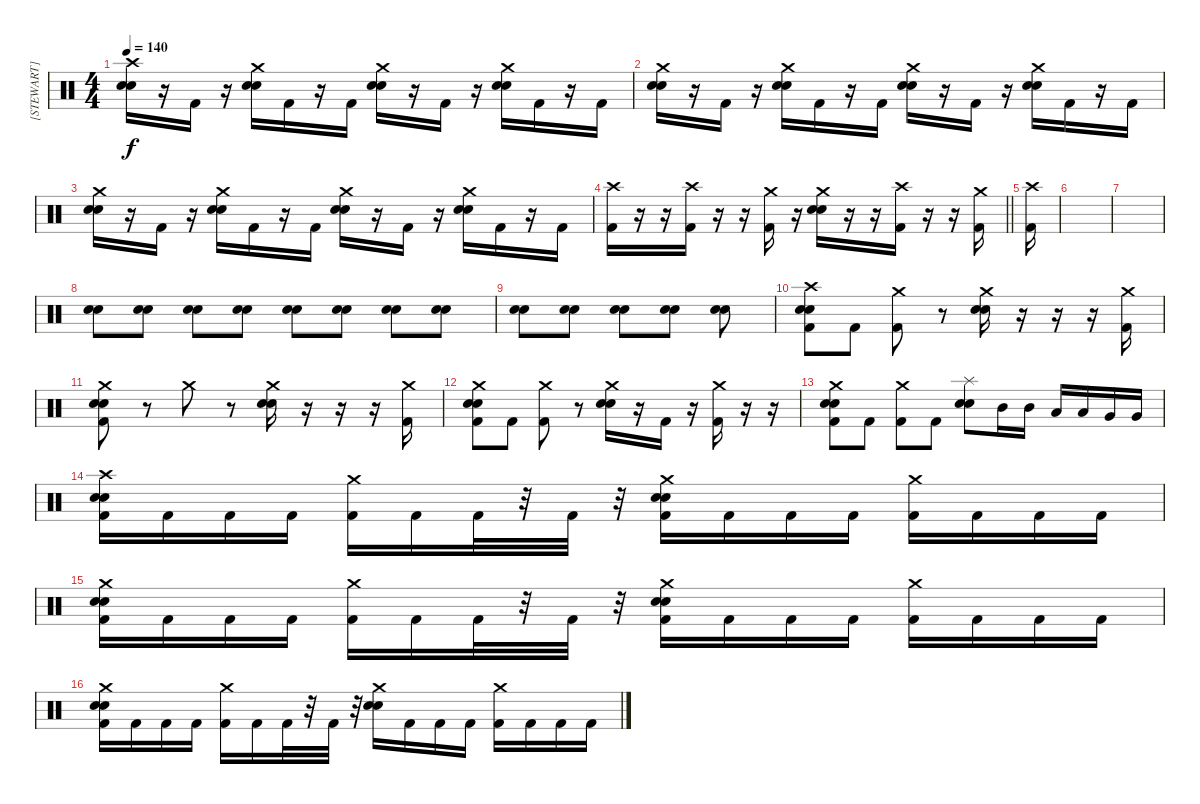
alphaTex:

\track ("[STEWART]" "[STEWART]") {instrument percussion}
\staff {score}
\articulation defaults
\ts (4 4)
\tempo 140
\clef neutral
\ks c
("Crash high (hit)" "Electric Snare (hit)" "Snare (hit) 2").16{dy f} r.16 "Kick (hit) 2".16 r.16 ("Crash medium (hit)" "Electric Snare (hit)" "Snare (hit) 2").16 "Kick (hit) 2".16 r.16 "Kick (hit) 2".16 ("Crash medium (hit)" "Electric Snare (hit)" "Snare (hit) 2").16 r.16 "Kick (hit) 2".16 r.16 ("Crash medium (hit)" "Electric Snare (hit)" "Snare (hit) 2").16 "Kick (hit) 2".16 r.16 "Kick (hit) 2".16 |
("Crash medium (hit)" "Electric Snare (hit)" "Snare (hit) 2").16 r.16 "Kick (hit) 2".16 r.16 ("Crash medium (hit)" "Electric Snare (hit)" "Snare (hit) 2").16 "Kick (hit) 2".16 r.16 "Kick (hit) 2".16 ("Crash medium (hit)" "Electric Snare (hit)" "Snare (hit) 2").16 r.16 "Kick (hit) 2".16 r.16 ("Crash medium (hit)" "Electric Snare (hit)" "Snare (hit) 2").16 "Kick (hit) 2".16 r.16 "Kick (hit) 2".16 |
("Crash medium (hit)" "Electric Snare (hit)" "Snare (hit) 2").16 r.16 "Kick (hit) 2".16 r.16 ("Crash medium (hit)" "Electric Snare (hit)" "Snare (hit) 2").16 "Kick (hit) 2".16 r.16 "Kick (hit) 2".16 ("Crash medium (hit)" "Electric Snare (hit)" "Snare (hit) 2").16 r.16 "Kick (hit) 2".16 r.16 ("Crash medium (hit)" "Electric Snare (hit)" "Snare (hit) 2").16 "Kick (hit) 2".16 r.16 "Kick (hit) 2".16 |
\barLineRight lightlight
("Crash high (hit)" "Kick (hit) 2").16 r.16 r.16 ("Crash high (hit)" "Kick (hit) 2").16 r.16 r.16 ("Crash medium (hit)" "Kick (hit) 2").16 r.16 ("Crash medium (hit)" "Electric Snare (hit)" "Snare (hit) 2").16 r.16 r.16 ("Crash high (hit)" "Kick (hit) 2").16 r.16 r.16 ("Crash medium (hit)" "Kick (hit) 2").16 |
("Crash high (hit)" "Kick (hit) 2").16 |
|
|
("Electric Snare (hit)" "Snare (hit) 2").8 ("Electric Snare (hit)" "Snare (hit) 2").8 ("Electric Snare (hit)" "Snare (hit) 2").8 ("Electric Snare (hit)" "Snare (hit) 2").8 ("Electric Snare (hit)" "Snare (hit) 2").8 ("Electric Snare (hit)" "Snare (hit) 2").8 ("Electric Snare (hit)" "Snare (hit) 2").8 ("Electric Snare (hit)" "Snare (hit) 2").8 |
("Electric Snare (hit)" "Snare (hit) 2").8 ("Electric Snare (hit)" "Snare (hit) 2").8 ("Electric Snare (hit)" "Snare (hit) 2").8 ("Electric Snare (hit)" "Snare (hit) 2").8 ("Electric Snare (hit)" "Snare (hit) 2").8 |
("Crash high (hit)" "Snare (hit) 2" "Electric Snare (hit)" "Kick (hit) 2").8 "Kick (hit) 2".8 ("Crash medium (hit)" "Kick (hit) 2").8 r.8 ("Crash medium (hit)" "Electric Snare (hit)" "Snare (hit) 2").16 r.16 r.16 r.16 ("Crash medium (hit)" "Kick (hit) 2").16 |
("Crash medium (hit)" "Electric Snare (hit)" "Snare (hit) 2" "Kick (hit) 2").8 r.8 "Crash medium (hit)".8 r.8 ("Crash medium (hit)" "Electric Snare (hit)" "Snare (hit) 2").16 r.16 r.16 r.16 ("Crash medium (hit)" "Kick (hit) 2").16 |
("Crash medium (hit)" "Snare (hit) 2" "Electric Snare (hit)" "Kick (hit) 2").8 "Kick (hit) 2".8 ("Crash medium (hit)" "Kick (hit) 2").8 r.8 ("Crash medium (hit)" "Electric Snare (hit)" "Snare (hit) 2").16 r.16 "Kick (hit) 2".16 r.16 ("Crash medium (hit)" "Kick (hit) 2").16 r.16 r.16 |
("Crash medium (hit)" "Electric Snare (hit)" "Snare (hit) 2" "Kick (hit) 2").8 "Kick (hit) 2".8 ("Crash medium (hit)" "Kick (hit) 2").8 "Kick (hit) 2".8 ("Splash (hit)" "Electric Snare (hit)" "Snare (hit) 2").8 "Mid Tom (hit)".16 "Mid Tom (hit)".16 "Low Tom (hit)".16 "Low Tom (hit)".16 "Very Low Tom (hit)".16 "Very Low Tom (hit)".16 |
("Crash high (hit)" "Snare (hit) 2" "Electric Snare (hit)" "Kick (hit) 2").16 "Kick (hit) 2".16 "Kick (hit) 2".16 "Kick (hit) 2".16 ("Crash medium (hit)" "Kick (hit) 2").16 "Kick (hit) 2".16 "Kick (hit) 2".32 r.32 "Kick (hit) 2".32 r.32 ("Crash medium (hit)" "Snare (hit) 2" "Electric Snare (hit)" "Kick (hit) 2").16 "Kick (hit) 2".16 "Kick (hit) 2".16 "Kick (hit) 2".16 ("Crash medium (hit)" "Kick (hit) 2").16 "Kick (hit) 2".16 "Kick (hit) 2".16 "Kick (hit) 2".16 |
("Crash medium (hit)" "Snare (hit) 2" "Electric Snare (hit)" "Kick (hit) 2").16 "Kick (hit) 2".16 "Kick (hit) 2".16 "Kick (hit) 2".16 ("Crash medium (hit)" "Kick (hit) 2").16 "Kick (hit) 2".16 "Kick (hit) 2".32 r.32 "Kick (hit) 2".32 r.32 ("Crash medium (hit)" "Snare (hit) 2" "Electric Snare (hit)" "Kick (hit) 2").16 "Kick (hit) 2".16 "Kick (hit) 2".16 "Kick (hit) 2".16 ("Crash medium (hit)" "Kick (hit) 2").16 "Kick (hit) 2".16 "Kick (hit) 2".16 "Kick (hit) 2".16 |
("Crash medium (hit)" "Electric Snare (hit)" "Snare (hit) 2" "Kick (hit) 2").16 "Kick (hit) 2".16 "Kick (hit) 2".16 "Kick (hit) 2".16 ("Crash medium (hit)" "Kick (hit) 2").16 "Kick (hit) 2".16 "Kick (hit) 2".32 r.32 "Kick (hit) 2".32 r.32 ("Crash medium (hit)" "Electric Snare (hit)" "Snare (hit) 2").16 "Kick (hit) 2".16 "Kick (hit) 2".16 "Kick (hit) 2".16 ("Crash medium (hit)" "Kick (hit) 2").16 "Kick (hit) 2".16 "Kick (hit) 2".16 "Kick (hit) 2".16
